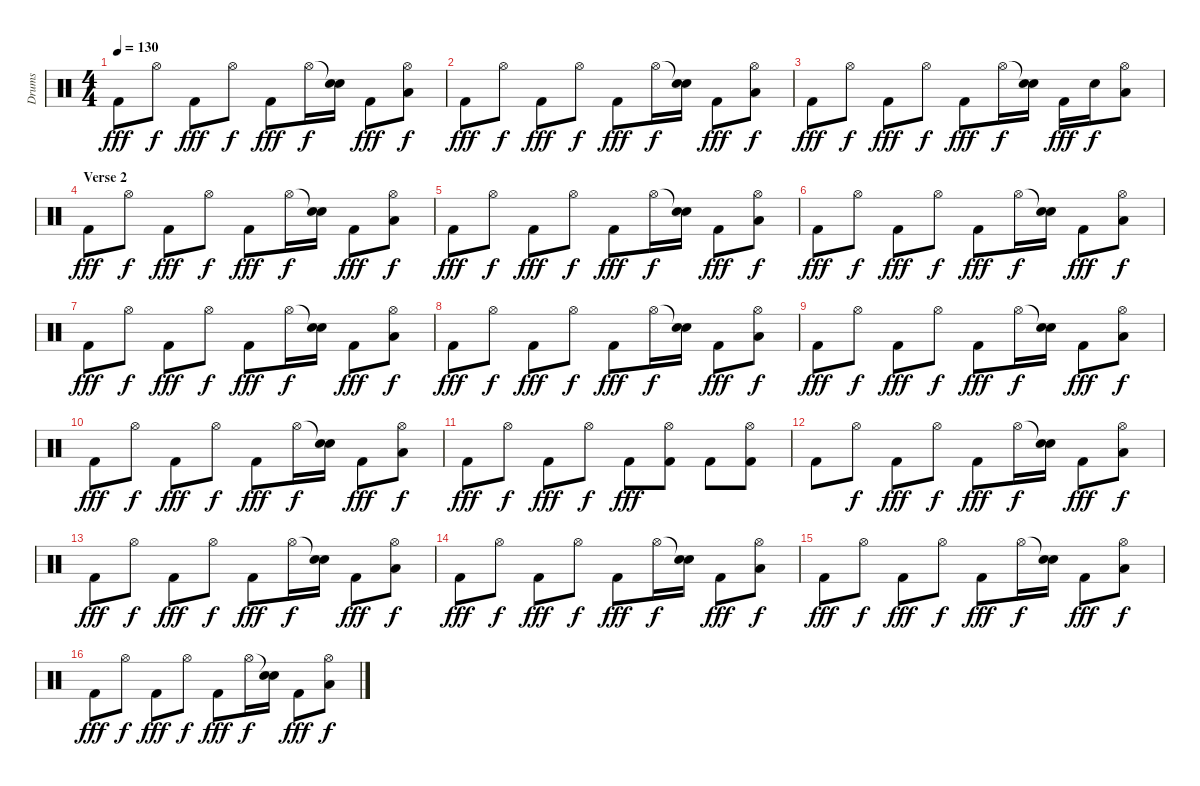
\track ("Drums" "Drums") {instrument percussion}
\staff {score}
\articulation defaults
\ts (4 4)
\tempo 130
\clef neutral
\ks c "Kick (hit) 2".8{dy fff} "Hi-Hat (open)".8{dy f} "Kick (hit) 2".8{dy fff} "Hi-Hat (open)".8{dy f} "Kick (hit) 2".8{dy fff} "Hi-Hat (open)".16{dy f}
("Snare (hit)"{t} "Snare (hit) 2").16 "Kick (hit) 2".8{dy fff} ("Hi-Hat (open)" "Low Tom (hit)").8{dy f} |
"Kick (hit) 2".8{dy fff} "Hi-Hat (open)".8{dy f} "Kick (hit) 2".8{dy fff} "Hi-Hat (open)".8{dy f} "Kick (hit) 2".8{dy fff} "Hi-Hat (open)".16{dy f} ("Snare (hit)"{t} "Snare (hit) 2").16 "Kick (hit) 2".8{dy fff} ("Hi-Hat (open)" "Low Tom (hit)").8{dy f} |
"Kick (hit) 2".8{dy fff} "Hi-Hat (open)".8{dy f} "Kick (hit) 2".8{dy fff} "Hi-Hat (open)".8{dy f} "Kick (hit) 2".8{dy fff} "Hi-Hat (open)".16{dy f} ("Snare (hit)"{t} "Snare (hit) 2").16 "Kick (hit) 2".16{dy fff} "Snare (hit) 2".16{dy f} ("Hi-Hat (open)" "Low Tom (hit)").8 |
\section ("" "Verse 2")
"Kick (hit) 2".8{dy fff} "Hi-Hat (open)".8{dy f} "Kick (hit) 2".8{dy fff} "Hi-Hat (open)".8{dy f} "Kick (hit) 2".8{dy fff} "Hi-Hat (open)".16{dy f} ("Snare (hit)"{t} "Snare (hit) 2").16 "Kick (hit) 2".8{dy fff} ("Hi-Hat (open)" "Low Tom (hit)").8{dy f} |
"Kick (hit) 2".8{dy fff} "Hi-Hat (open)".8{dy f} "Kick (hit) 2".8{dy fff} "Hi-Hat (open)".8{dy f} "Kick (hit) 2".8{dy fff} "Hi-Hat (open)".16{dy f} ("Snare (hit)"{t} "Snare (hit) 2").16 "Kick (hit) 2".8{dy fff} ("Hi-Hat (open)" "Low Tom (hit)").8{dy f} |
"Kick (hit) 2".8{dy fff} "Hi-Hat (open)".8{dy f} "Kick (hit) 2".8{dy fff} "Hi-Hat (open)".8{dy f} "Kick (hit) 2".8{dy fff} "Hi-Hat (open)".16{dy f} ("Snare (hit)"{t} "Snare (hit) 2").16 "Kick (hit) 2".8{dy fff} ("Hi-Hat (open)" "Low Tom (hit)").8{dy f} |
"Kick (hit) 2".8{dy fff} "Hi-Hat (open)".8{dy f} "Kick (hit) 2".8{dy fff} "Hi-Hat (open)".8{dy f} "Kick (hit) 2".8{dy fff} "Hi-Hat (open)".16{dy f} ("Snare (hit)"{t} "Snare (hit) 2").16 "Kick (hit) 2".8{dy fff} ("Hi-Hat (open)" "Low Tom (hit)").8{dy f} |
"Kick (hit) 2".8{dy fff} "Hi-Hat (open)".8{dy f} "Kick (hit) 2".8{dy fff} "Hi-Hat (open)".8{dy f} "Kick (hit) 2".8{dy fff} "Hi-Hat (open)".16{dy f} ("Snare (hit)"{t} "Snare (hit) 2").16 "Kick (hit) 2".8{dy fff} ("Hi-Hat (open)" "Low Tom (hit)").8{dy f} |
"Kick (hit) 2".8{dy fff} "Hi-Hat (open)".8{dy f} "Kick (hit) 2".8{dy fff} "Hi-Hat (open)".8{dy f} "Kick (hit) 2".8{dy fff} "Hi-Hat (open)".16{dy f} ("Snare (hit)"{t} "Snare (hit) 2").16 "Kick (hit) 2".8{dy fff} ("Hi-Hat (open)" "Low Tom (hit)").8{dy f} |
"Kick (hit) 2".8{dy fff} "Hi-Hat (open)".8{dy f} "Kick (hit) 2".8{dy fff} "Hi-Hat (open)".8{dy f} "Kick (hit) 2".8{dy fff} "Hi-Hat (open)".16{dy f} ("Snare (hit)"{t} "Snare (hit) 2").16 "Kick (hit) 2".8{dy fff} ("Hi-Hat (open)" "Low Tom (hit)").8{dy f} |
"Kick (hit) 2".8{dy fff} "Hi-Hat (open)".8{dy f} "Kick (hit) 2".8{dy fff} "Hi-Hat (open)".8{dy f} "Kick (hit) 2".8{dy fff} ("Hi-Hat (open)" "Kick (hit) 2").8 "Kick (hit) 2".8 ("Hi-Hat (open)" "Kick (hit) 2").8 |
"Kick (hit) 2".8 "Hi-Hat (open)".8{dy f} "Kick (hit) 2".8{dy fff} "Hi-Hat (open)".8{dy f} "Kick (hit) 2".8{dy fff} "Hi-Hat (open)".16{dy f} ("Snare (hit)"{t} "Snare (hit) 2").16 "Kick (hit) 2".8{dy fff} ("Hi-Hat (open)" "Low Tom (hit)").8{dy f} |
"Kick (hit) 2".8{dy fff} "Hi-Hat (open)".8{dy f} "Kick (hit) 2".8{dy fff} "Hi-Hat (open)".8{dy f} "Kick (hit) 2".8{dy fff} "Hi-Hat (open)".16{dy f} ("Snare (hit)"{t} "Snare (hit) 2").16 "Kick (hit) 2".8{dy fff} ("Hi-Hat (open)" "Low Tom (hit)").8{dy f} |
"Kick (hit) 2".8{dy fff} "Hi-Hat (open)".8{dy f} "Kick (hit) 2".8{dy fff} "Hi-Hat (open)".8{dy f} "Kick (hit) 2".8{dy fff} "Hi-Hat (open)".16{dy f} ("Snare (hit)"{t} "Snare (hit) 2").16 "Kick (hit) 2".8{dy fff} ("Hi-Hat (open)" "Low Tom (hit)").8{dy f} |
"Kick (hit) 2".8{dy fff} "Hi-Hat (open)".8{dy f} "Kick (hit) 2".8{dy fff} "Hi-Hat (open)".8{dy f} "Kick (hit) 2".8{dy fff} "Hi-Hat (open)".16{dy f} ("Snare (hit)"{t} "Snare (hit) 2").16 "Kick (hit) 2".8{dy fff} ("Hi-Hat (open)" "Low Tom (hit)").8{dy f} |
"Kick (hit) 2".8{dy fff} "Hi-Hat (open)".8{dy f} "Kick (hit) 2".8{dy fff} "Hi-Hat (open)".8{dy f} "Kick (hit) 2".8{dy fff} "Hi-Hat (open)".16{dy f} ("Snare (hit)"{t} "Snare (hit) 2").16 "Kick (hit) 2".8{dy fff} ("Hi-Hat (open)" "Low Tom (hit)").8{dy f}
